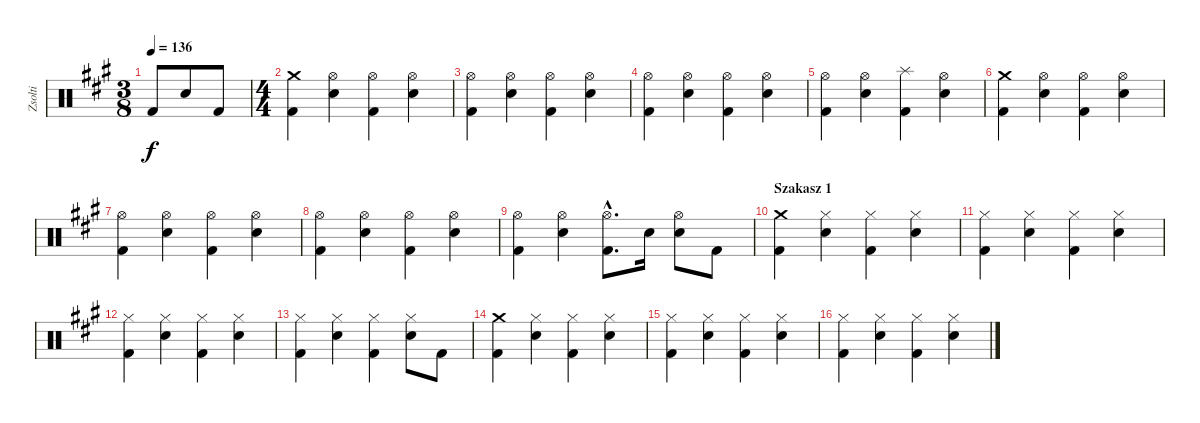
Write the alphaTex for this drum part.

\track ("Zsolti" "Zsolti") {instrument percussion}
\staff {score}
\articulation defaults
\ts (3 8)
\tempo 136
\clef neutral
\ks f#minor "Kick (hit) 2".8{dy f} "Snare (hit) 2".8 "Kick (hit) 2".8
|
\ts (4 4)
("Crash medium (hit)" "Kick (hit) 2").4 ("Hi-Hat (open)" "Snare (hit) 2").4 ("Hi-Hat (open)" "Kick (hit) 2").4 ("Hi-Hat (open)" "Snare (hit) 2").4 |
("Hi-Hat (open)" "Kick (hit) 2").4 ("Hi-Hat (open)" "Snare (hit) 2").4 ("Hi-Hat (open)" "Kick (hit) 2").4 ("Hi-Hat (open)" "Snare (hit) 2").4 |
("Hi-Hat (open)" "Kick (hit) 2").4 ("Hi-Hat (open)" "Snare (hit) 2").4 ("Hi-Hat (open)" "Kick (hit) 2").4 ("Hi-Hat (open)" "Snare (hit) 2").4 |
("Hi-Hat (open)" "Kick (hit) 2").4 ("Hi-Hat (open)" "Snare (hit) 2").4 ("Splash (hit)" "Kick (hit) 2").4 ("Hi-Hat (open)" "Snare (hit) 2").4 |
("Crash medium (hit)" "Kick (hit) 2").4 ("Hi-Hat (open)" "Snare (hit) 2").4 ("Hi-Hat (open)" "Kick (hit) 2").4 ("Hi-Hat (open)" "Snare (hit) 2").4 |
("Hi-Hat (open)" "Kick (hit) 2").4 ("Hi-Hat (open)" "Snare (hit) 2").4 ("Hi-Hat (open)" "Kick (hit) 2").4 ("Hi-Hat (open)" "Snare (hit) 2").4 |
("Hi-Hat (open)" "Kick (hit) 2").4 ("Hi-Hat (open)" "Snare (hit) 2").4 ("Hi-Hat (open)" "Kick (hit) 2").4 ("Hi-Hat (open)" "Snare (hit) 2").4 |
("Hi-Hat (open)" "Kick (hit) 2").4 ("Hi-Hat (open)" "Snare (hit) 2").4 ("Hi-Hat (open)"{hac} "Kick (hit) 2"{hac}).8{d} "Snare (hit) 2".16 ("Hi-Hat (open)" "Snare (hit) 2").8 "Kick (hit) 2".8 |
\section ("" "Szakasz 1")
("Crash medium (hit)" "Kick (hit) 2").4 ("Hi-Hat (closed)" "Snare (hit) 2").4 ("Hi-Hat (closed)" "Kick (hit) 2").4 ("Hi-Hat (closed)" "Snare (hit) 2").4 |
("Hi-Hat (closed)" "Kick (hit) 2").4 ("Hi-Hat (closed)" "Snare (hit) 2").4 ("Hi-Hat (closed)" "Kick (hit) 2").4 ("Hi-Hat (closed)" "Snare (hit) 2").4 |
("Hi-Hat (closed)" "Kick (hit) 2").4 ("Hi-Hat (closed)" "Snare (hit) 2").4 ("Hi-Hat (closed)" "Kick (hit) 2").4 ("Hi-Hat (closed)" "Snare (hit) 2").4 |
("Hi-Hat (closed)" "Kick (hit) 2").4 ("Hi-Hat (closed)" "Snare (hit) 2").4 ("Hi-Hat (closed)" "Kick (hit) 2").4 ("Hi-Hat (closed)" "Snare (hit) 2").8 "Kick (hit) 2".8 |
("Crash medium (hit)" "Kick (hit) 2").4 ("Hi-Hat (closed)" "Snare (hit) 2").4 ("Hi-Hat (closed)" "Kick (hit) 2").4 ("Hi-Hat (closed)" "Snare (hit) 2").4 |
("Hi-Hat (closed)" "Kick (hit) 2").4 ("Hi-Hat (closed)" "Snare (hit) 2").4 ("Hi-Hat (closed)" "Kick (hit) 2").4 ("Hi-Hat (closed)" "Snare (hit) 2").4 |
("Hi-Hat (closed)" "Kick (hit) 2").4 ("Hi-Hat (closed)" "Snare (hit) 2").4 ("Hi-Hat (closed)" "Kick (hit) 2").4 ("Hi-Hat (closed)" "Snare (hit) 2").4
